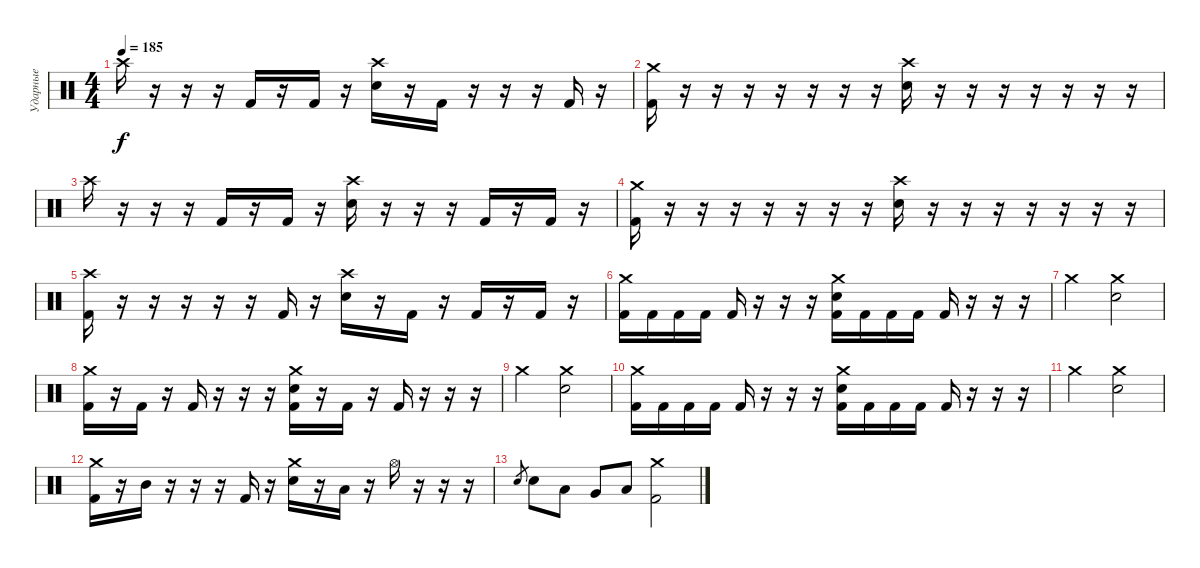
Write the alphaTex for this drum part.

\track ("Ударные" "Ударные") {instrument percussion}
\staff {score}
\articulation defaults
\ts (4 4)
\tempo 185
\clef neutral
\ks c "Crash high (hit)".16{dy f}
r.16 r.16 r.16 "Kick (hit) 2".16 r.16 "Kick (hit) 2".16 r.16 ("Crash high (hit)" "Electric Snare (hit)").16 r.16 "Kick (hit) 2".16 r.16 r.16 r.16 "Kick (hit) 2".16 r.16 |
("Crash medium (hit)" "Kick (hit) 2").16 r.16 r.16 r.16 r.16 r.16 r.16 r.16 ("Crash high (hit)" "Electric Snare (hit)").16 r.16 r.16 r.16 r.16 r.16 r.16 r.16 |
"Crash high (hit)".16 r.16 r.16 r.16 "Kick (hit) 2".16 r.16 "Kick (hit) 2".16 r.16 ("Crash high (hit)" "Electric Snare (hit)").16 r.16 r.16 r.16 "Kick (hit) 2".16 r.16 "Kick (hit) 2".16 r.16 |
("Crash medium (hit)" "Kick (hit) 2").16 r.16 r.16 r.16 r.16 r.16 r.16 r.16 ("Crash high (hit)" "Electric Snare (hit)").16 r.16 r.16 r.16 r.16 r.16 r.16 r.16 |
("Crash high (hit)" "Kick (hit) 2").16 r.16 r.16 r.16 r.16 r.16 "Kick (hit) 2".16 r.16 ("Crash high (hit)" "Electric Snare (hit)").16 r.16 "Kick (hit) 2".16 r.16 "Kick (hit) 2".16 r.16 "Kick (hit) 2".16 r.16 |
("Crash medium (hit)" "Kick (hit) 2").16 "Kick (hit) 2".16 "Kick (hit) 2".16 "Kick (hit) 2".16 "Kick (hit) 2".16 r.16 r.16 r.16 ("Crash medium (hit)" "Electric Snare (hit)" "Kick (hit) 2").16 "Kick (hit) 2".16 "Kick (hit) 2".16 "Kick (hit) 2".16 "Kick (hit) 2".16 r.16 r.16 r.16 |
"Crash medium (hit)".2 ("Crash medium (hit)" "Electric Snare (hit)").2 |
("Crash medium (hit)" "Kick (hit) 2").16 r.16 "Kick (hit) 2".16 r.16 "Kick (hit) 2".16 r.16 r.16 r.16 ("Crash medium (hit)" "Electric Snare (hit)" "Kick (hit) 2").16 r.16 "Kick (hit) 2".16 r.16 "Kick (hit) 2".16 r.16 r.16 r.16 |
"Crash medium (hit)".2 ("Crash medium (hit)" "Electric Snare (hit)").2 |
("Crash medium (hit)" "Kick (hit) 2").16 "Kick (hit) 2".16 "Kick (hit) 2".16 "Kick (hit) 2".16 "Kick (hit) 2".16 r.16 r.16 r.16 ("Crash medium (hit)" "Electric Snare (hit)" "Kick (hit) 2").16 "Kick (hit) 2".16 "Kick (hit) 2".16 "Kick (hit) 2".16 "Kick (hit) 2".16 r.16 r.16 r.16 |
"Crash medium (hit)".2 ("Crash medium (hit)" "Electric Snare (hit)").2 |
("Crash medium (hit)" "Kick (hit) 2").16 r.16 "Mid Tom (hit)".16 r.16 r.16 r.16 "Kick (hit) 2".16 r.16 ("Crash medium (hit)" "Electric Snare (hit)").16 r.16 "Low Tom (hit)".16 r.16 "Hi-Hat (open)".16 r.16 r.16 r.16 |
"Electric Snare (hit)".8{gr} "Electric Snare (hit)".8 "Low Tom (hit)".8 "Very Low Tom (hit)".8 "Low Floor Tom (hit)".8 ("Crash medium (hit)" "Kick (hit) 2").2
